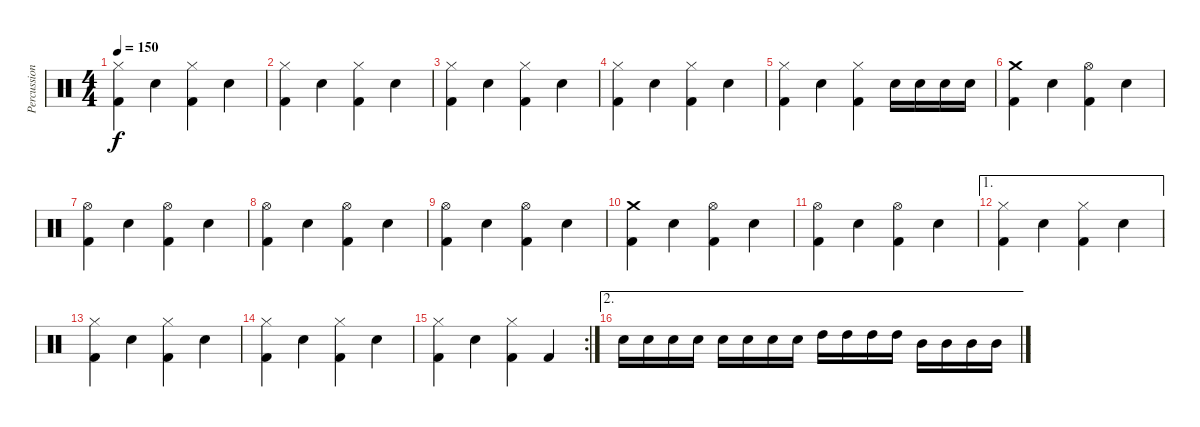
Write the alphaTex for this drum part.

\track ("Percussion" "Percussion") {instrument percussion}
\staff {score}
\articulation defaults
\ts (4 4)
\tempo 150
\clef neutral
\ks c
("Hi-Hat (closed)" "Kick (hit) 2").4{dy f} "Snare (hit) 2".4 ("Hi-Hat (closed)" "Kick (hit) 2").4 "Snare (hit) 2".4 |
("Hi-Hat (closed)" "Kick (hit) 2").4 "Snare (hit) 2".4 ("Hi-Hat (closed)" "Kick (hit) 2").4 "Snare (hit) 2".4 |
("Hi-Hat (closed)" "Kick (hit) 2").4 "Snare (hit) 2".4 ("Hi-Hat (closed)" "Kick (hit) 2").4 "Snare (hit) 2".4 |
("Hi-Hat (closed)" "Kick (hit) 2").4 "Snare (hit) 2".4 ("Hi-Hat (closed)" "Kick (hit) 2").4 "Snare (hit) 2".4 |
("Hi-Hat (closed)" "Kick (hit) 2").4 "Snare (hit) 2".4 ("Hi-Hat (closed)" "Kick (hit) 2").4 "Snare (hit) 2".16 "Snare (hit) 2".16 "Snare (hit) 2".16 "Snare (hit) 2".16 |
("Crash medium (hit)" "Kick (hit) 2").4 "Snare (hit) 2".4 ("Hi-Hat (open)" "Kick (hit) 2").4 "Snare (hit) 2".4 |
("Hi-Hat (open)" "Kick (hit) 2").4 "Snare (hit) 2".4 ("Hi-Hat (open)" "Kick (hit) 2").4 "Snare (hit) 2".4 |
("Hi-Hat (open)" "Kick (hit) 2").4 "Snare (hit) 2".4 ("Hi-Hat (open)" "Kick (hit) 2").4 "Snare (hit) 2".4 |
("Hi-Hat (open)" "Kick (hit) 2").4 "Snare (hit) 2".4 ("Hi-Hat (open)" "Kick (hit) 2").4 "Snare (hit) 2".4 |
("Crash medium (hit)" "Kick (hit) 2").4 "Snare (hit) 2".4 ("Hi-Hat (open)" "Kick (hit) 2").4 "Snare (hit) 2".4 |
("Hi-Hat (open)" "Kick (hit) 2").4 "Snare (hit) 2".4 ("Hi-Hat (open)" "Kick (hit) 2").4 "Snare (hit) 2".4 |
\ae 1
("Hi-Hat (closed)" "Kick (hit) 2").4 "Snare (hit) 2".4 ("Hi-Hat (closed)" "Kick (hit) 2").4 "Snare (hit) 2".4 |
("Hi-Hat (closed)" "Kick (hit) 2").4 "Snare (hit) 2".4 ("Hi-Hat (closed)" "Kick (hit) 2").4 "Snare (hit) 2".4 |
("Hi-Hat (closed)" "Kick (hit) 2").4 "Snare (hit) 2".4 ("Hi-Hat (closed)" "Kick (hit) 2").4 "Snare (hit) 2".4 |
\rc 2
("Hi-Hat (closed)" "Kick (hit) 2").4 "Snare (hit) 2".4 ("Hi-Hat (closed)" "Kick (hit) 2").4 "Kick (hit) 2".4 |
\ae 2 "Snare (hit) 2".16 "Snare (hit) 2".16 "Snare (hit) 2".16 "Snare (hit) 2".16 "Electric Snare (hit)".16 "Electric Snare (hit)".16 "Electric Snare (hit)".16 "Electric Snare (hit)".16 "High Tom (hit)".16 "High Tom (hit)".16 "High Tom (hit)".16 "High Tom (hit)".16 "Mid Tom (hit)".16 "Mid Tom (hit)".16 "Mid Tom (hit)".16 "Mid Tom (hit)".16
